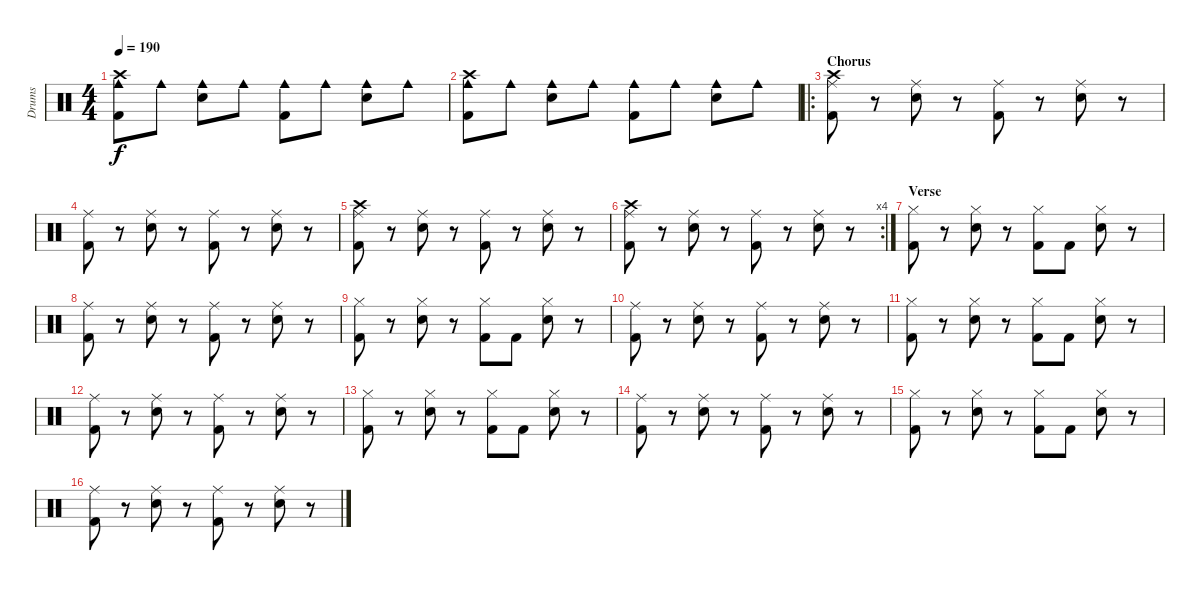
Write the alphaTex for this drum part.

\track ("Drums" "Drums") {instrument percussion}
\staff {score}
\articulation defaults
\ts (4 4)
\tempo 190
\clef neutral
\ks c
("Crash high (hit)" "Cowbell medium (hit)" "Kick (hit) 2").8{dy f} "Cowbell medium (hit)".8 ("Cowbell medium (hit)" "Electric Snare (hit)").8 "Cowbell medium (hit)".8 ("Cowbell medium (hit)" "Kick (hit) 2").8 "Cowbell medium (hit)".8 ("Cowbell medium (hit)" "Electric Snare (hit)").8 "Cowbell medium (hit)".8 |
("Crash high (hit)" "Cowbell medium (hit)" "Kick (hit) 2").8 "Cowbell medium (hit)".8 ("Cowbell medium (hit)" "Electric Snare (hit)").8 "Cowbell medium (hit)".8 ("Cowbell medium (hit)" "Kick (hit) 2").8 "Cowbell medium (hit)".8 ("Cowbell medium (hit)" "Electric Snare (hit)").8 "Cowbell medium (hit)".8 |
\ro
\section ("" "Chorus")
("Crash high (hit)" "Ride (middle)" "Kick (hit) 2").8 r.8 ("Ride (middle)" "Electric Snare (hit)").8 r.8 ("Ride (middle)" "Kick (hit) 2").8 r.8 ("Ride (middle)" "Electric Snare (hit)").8 r.8 |
("Ride (middle)" "Kick (hit) 2").8 r.8 ("Ride (middle)" "Electric Snare (hit)").8 r.8 ("Ride (middle)" "Kick (hit) 2").8 r.8 ("Ride (middle)" "Electric Snare (hit)").8 r.8 |
("Crash high (hit)" "Ride (middle)" "Kick (hit) 2").8 r.8 ("Ride (middle)" "Electric Snare (hit)").8 r.8 ("Ride (middle)" "Kick (hit) 2").8 r.8 ("Ride (middle)" "Electric Snare (hit)").8 r.8 |
\rc 4
("Crash high (hit)" "Ride (middle)" "Kick (hit) 2").8 r.8 ("Ride (middle)" "Electric Snare (hit)").8 r.8 ("Ride (middle)" "Kick (hit) 2").8 r.8 ("Ride (middle)" "Electric Snare (hit)").8 r.8 |
\section ("" "Verse")
("Hi-Hat (closed)" "Kick (hit) 2").8 r.8 ("Hi-Hat (closed)" "Electric Snare (hit)").8 r.8 ("Hi-Hat (closed)" "Kick (hit) 2").8 "Kick (hit) 2".8 ("Hi-Hat (closed)" "Electric Snare (hit)").8 r.8 |
("Ride (middle)" "Kick (hit) 2").8 r.8 ("Ride (middle)" "Electric Snare (hit)").8 r.8 ("Ride (middle)" "Kick (hit) 2").8 r.8 ("Ride (middle)" "Electric Snare (hit)").8 r.8 |
("Hi-Hat (closed)" "Kick (hit) 2").8 r.8 ("Hi-Hat (closed)" "Electric Snare (hit)").8 r.8 ("Hi-Hat (closed)" "Kick (hit) 2").8 "Kick (hit) 2".8 ("Hi-Hat (closed)" "Electric Snare (hit)").8 r.8 |
("Ride (middle)" "Kick (hit) 2").8 r.8 ("Ride (middle)" "Electric Snare (hit)").8 r.8 ("Ride (middle)" "Kick (hit) 2").8 r.8 ("Ride (middle)" "Electric Snare (hit)").8 r.8 |
("Hi-Hat (closed)" "Kick (hit) 2").8 r.8 ("Hi-Hat (closed)" "Electric Snare (hit)").8 r.8 ("Hi-Hat (closed)" "Kick (hit) 2").8 "Kick (hit) 2".8 ("Hi-Hat (closed)" "Electric Snare (hit)").8 r.8 |
("Ride (middle)" "Kick (hit) 2").8 r.8 ("Ride (middle)" "Electric Snare (hit)").8 r.8 ("Ride (middle)" "Kick (hit) 2").8 r.8 ("Ride (middle)" "Electric Snare (hit)").8 r.8 |
("Hi-Hat (closed)" "Kick (hit) 2").8 r.8 ("Hi-Hat (closed)" "Electric Snare (hit)").8 r.8 ("Hi-Hat (closed)" "Kick (hit) 2").8 "Kick (hit) 2".8 ("Hi-Hat (closed)" "Electric Snare (hit)").8 r.8 |
("Ride (middle)" "Kick (hit) 2").8 r.8 ("Ride (middle)" "Electric Snare (hit)").8 r.8 ("Ride (middle)" "Kick (hit) 2").8 r.8 ("Ride (middle)" "Electric Snare (hit)").8 r.8 |
("Hi-Hat (closed)" "Kick (hit) 2").8 r.8 ("Hi-Hat (closed)" "Electric Snare (hit)").8 r.8 ("Hi-Hat (closed)" "Kick (hit) 2").8 "Kick (hit) 2".8 ("Hi-Hat (closed)" "Electric Snare (hit)").8 r.8 |
("Ride (middle)" "Kick (hit) 2").8 r.8 ("Ride (middle)" "Electric Snare (hit)").8 r.8 ("Ride (middle)" "Kick (hit) 2").8 r.8 ("Ride (middle)" "Electric Snare (hit)").8 r.8
